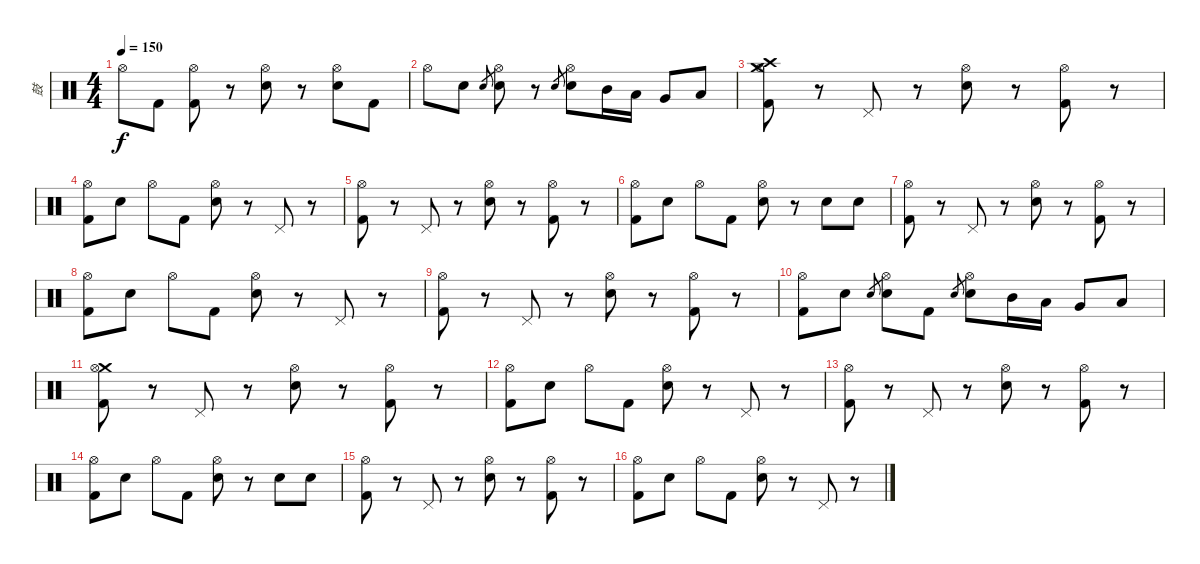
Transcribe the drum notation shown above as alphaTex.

\track ("鼓" "鼓") {instrument percussion}
\staff {score}
\articulation defaults
\ts (4 4)
\tempo 150
\clef neutral
\ks c "Hi-Hat (open)".8{dy f} "Kick (hit) 2".8
("Hi-Hat (open)" "Kick (hit) 2").8 r.8 ("Hi-Hat (open)" "Electric Snare (hit)").8 r.8 ("Hi-Hat (open)" "Electric Snare (hit)").8 "Kick (hit) 2".8 |
"Hi-Hat (open)".8 "Electric Snare (hit)".8 "Electric Snare (hit)".8{gr} ("Hi-Hat (open)" "Electric Snare (hit)").8 r.8 "Electric Snare (hit)".8{gr} ("Hi-Hat (open)" "Electric Snare (hit)").8 "Mid Tom (hit)".16 "Low Tom (hit)".16 "Very Low Tom (hit)".8 "Low Floor Tom (hit)".8 |
("Crash medium (hit)" "Hi-Hat (open)" "Kick (hit) 2" "Crash high (hit)").8 r.8 "Pedal Hi-Hat (hit)".8 r.8 ("Hi-Hat (open)" "Electric Snare (hit)").8 r.8 ("Hi-Hat (open)" "Kick (hit) 2").8 r.8 |
("Hi-Hat (open)" "Kick (hit) 2").8 "Electric Snare (hit)".8 "Hi-Hat (open)".8 "Kick (hit) 2".8 ("Hi-Hat (open)" "Electric Snare (hit)").8 r.8 "Pedal Hi-Hat (hit)".8 r.8 |
("Hi-Hat (open)" "Kick (hit) 2").8 r.8 "Pedal Hi-Hat (hit)".8 r.8 ("Hi-Hat (open)" "Electric Snare (hit)").8 r.8 ("Hi-Hat (open)" "Kick (hit) 2").8 r.8 |
("Hi-Hat (open)" "Kick (hit) 2").8 "Electric Snare (hit)".8 "Hi-Hat (open)".8 "Kick (hit) 2".8 ("Hi-Hat (open)" "Electric Snare (hit)").8 r.8 "Electric Snare (hit)".8 "Electric Snare (hit)".8 |
("Hi-Hat (open)" "Kick (hit) 2").8 r.8 "Pedal Hi-Hat (hit)".8 r.8 ("Hi-Hat (open)" "Electric Snare (hit)").8 r.8 ("Hi-Hat (open)" "Kick (hit) 2").8 r.8 |
("Hi-Hat (open)" "Kick (hit) 2").8 "Electric Snare (hit)".8 "Hi-Hat (open)".8 "Kick (hit) 2".8 ("Hi-Hat (open)" "Electric Snare (hit)").8 r.8 "Pedal Hi-Hat (hit)".8 r.8 |
("Hi-Hat (open)" "Kick (hit) 2").8 r.8 "Pedal Hi-Hat (hit)".8 r.8 ("Hi-Hat (open)" "Electric Snare (hit)").8 r.8 ("Hi-Hat (open)" "Kick (hit) 2").8 r.8 |
("Hi-Hat (open)" "Kick (hit) 2").8 "Electric Snare (hit)".8 "Electric Snare (hit)".8{gr} ("Hi-Hat (open)" "Electric Snare (hit)").8 "Kick (hit) 2".8 "Electric Snare (hit)".8{gr} ("Hi-Hat (open)" "Electric Snare (hit)").8 "Mid Tom (hit)".16 "Low Tom (hit)".16 "Very Low Tom (hit)".8 "Low Floor Tom (hit)".8 |
("Crash medium (hit)" "Hi-Hat (open)" "Kick (hit) 2").8 r.8 "Pedal Hi-Hat (hit)".8 r.8 ("Hi-Hat (open)" "Electric Snare (hit)").8 r.8 ("Hi-Hat (open)" "Kick (hit) 2").8 r.8 |
("Hi-Hat (open)" "Kick (hit) 2").8 "Electric Snare (hit)".8 "Hi-Hat (open)".8 "Kick (hit) 2".8 ("Hi-Hat (open)" "Electric Snare (hit)").8 r.8 "Pedal Hi-Hat (hit)".8 r.8 |
("Hi-Hat (open)" "Kick (hit) 2").8 r.8 "Pedal Hi-Hat (hit)".8 r.8 ("Hi-Hat (open)" "Electric Snare (hit)").8 r.8 ("Hi-Hat (open)" "Kick (hit) 2").8 r.8 |
("Hi-Hat (open)" "Kick (hit) 2").8 "Electric Snare (hit)".8 "Hi-Hat (open)".8 "Kick (hit) 2".8 ("Hi-Hat (open)" "Electric Snare (hit)").8 r.8 "Electric Snare (hit)".8 "Electric Snare (hit)".8 |
("Hi-Hat (open)" "Kick (hit) 2").8 r.8 "Pedal Hi-Hat (hit)".8 r.8 ("Hi-Hat (open)" "Electric Snare (hit)").8 r.8 ("Hi-Hat (open)" "Kick (hit) 2").8 r.8 |
("Hi-Hat (open)" "Kick (hit) 2").8 "Electric Snare (hit)".8 "Hi-Hat (open)".8 "Kick (hit) 2".8 ("Hi-Hat (open)" "Electric Snare (hit)").8 r.8 "Pedal Hi-Hat (hit)".8 r.8
